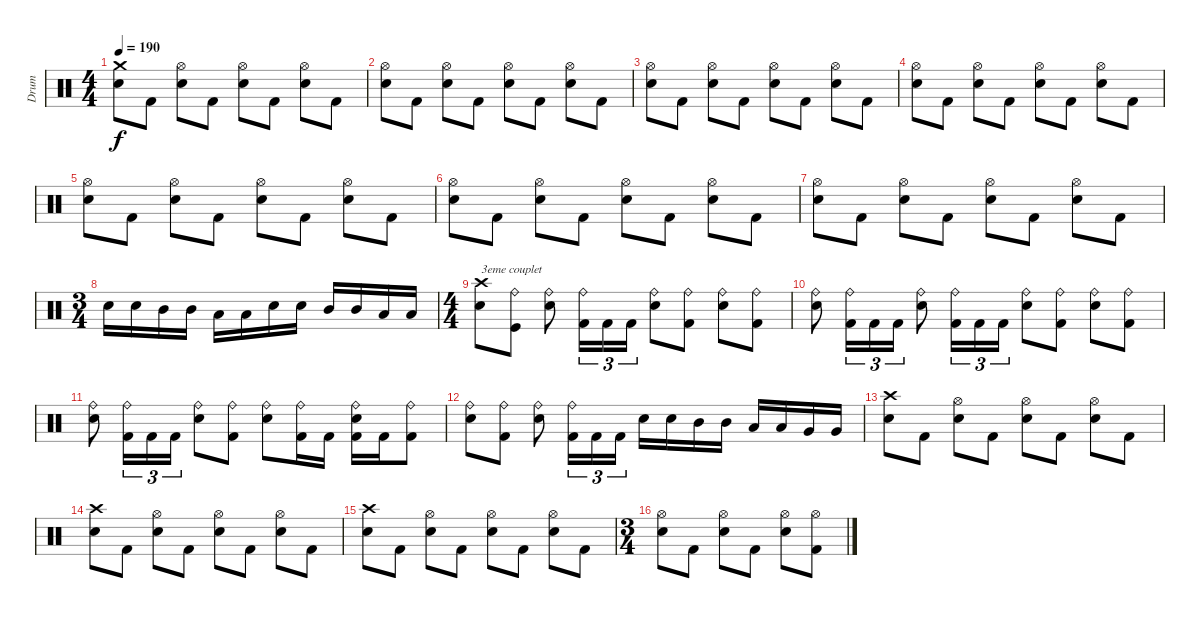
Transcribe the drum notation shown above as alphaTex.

\track ("Drum" "Drum") {instrument percussion}
\staff {score}
\articulation defaults
\ts (4 4)
\tempo 190
\clef neutral
\ks c
("Snare (hit) 2" "Crash medium (hit)").8{dy f} "Kick (hit) 2".8 ("Snare (hit) 2" "Hi-Hat (open)").8 "Kick (hit) 2".8 ("Snare (hit) 2" "Hi-Hat (open)").8 "Kick (hit) 2".8 ("Snare (hit) 2" "Hi-Hat (open)").8 "Kick (hit) 2".8 |
("Snare (hit) 2" "Hi-Hat (open)").8 "Kick (hit) 2".8 ("Snare (hit) 2" "Hi-Hat (open)").8 "Kick (hit) 2".8 ("Snare (hit) 2" "Hi-Hat (open)").8 "Kick (hit) 2".8 ("Snare (hit) 2" "Hi-Hat (open)").8 "Kick (hit) 2".8 |
("Snare (hit) 2" "Hi-Hat (open)").8 "Kick (hit) 2".8 ("Snare (hit) 2" "Hi-Hat (open)").8 "Kick (hit) 2".8 ("Snare (hit) 2" "Hi-Hat (open)").8 "Kick (hit) 2".8 ("Snare (hit) 2" "Hi-Hat (open)").8 "Kick (hit) 2".8 |
("Snare (hit) 2" "Hi-Hat (open)").8 "Kick (hit) 2".8 ("Snare (hit) 2" "Hi-Hat (open)").8 "Kick (hit) 2".8 ("Snare (hit) 2" "Hi-Hat (open)").8 "Kick (hit) 2".8 ("Snare (hit) 2" "Hi-Hat (open)").8 "Kick (hit) 2".8 |
("Snare (hit) 2" "Hi-Hat (open)").8 "Kick (hit) 2".8 ("Snare (hit) 2" "Hi-Hat (open)").8 "Kick (hit) 2".8 ("Snare (hit) 2" "Hi-Hat (open)").8 "Kick (hit) 2".8 ("Snare (hit) 2" "Hi-Hat (open)").8 "Kick (hit) 2".8 |
("Snare (hit) 2" "Hi-Hat (open)").8 "Kick (hit) 2".8 ("Snare (hit) 2" "Hi-Hat (open)").8 "Kick (hit) 2".8 ("Snare (hit) 2" "Hi-Hat (open)").8 "Kick (hit) 2".8 ("Snare (hit) 2" "Hi-Hat (open)").8 "Kick (hit) 2".8 |
("Snare (hit) 2" "Hi-Hat (open)").8 "Kick (hit) 2".8 ("Snare (hit) 2" "Hi-Hat (open)").8 "Kick (hit) 2".8 ("Snare (hit) 2" "Hi-Hat (open)").8 "Kick (hit) 2".8 ("Snare (hit) 2" "Hi-Hat (open)").8 "Kick (hit) 2".8 |
\ts (3 4)
"Snare (hit) 2".16 "Snare (hit) 2".16 "Mid Tom (hit)".16 "Mid Tom (hit)".16 "Low Tom (hit)".16 "Low Tom (hit)".16 "Snare (hit) 2".16 "Snare (hit) 2".16 "Mid Tom (hit)".16 "Mid Tom (hit)".16 "Low Tom (hit)".16 "Low Tom (hit)".16 |
\ts (4 4)
("Snare (hit) 2" "Crash high (hit)").8{txt "3eme couplet"} ("Kick (hit)" "Ride (bell)").8 ("Snare (hit) 2" "Ride (bell)").8 ("Kick (hit) 2" "Ride (bell)").16{tu (3 2)} "Kick (hit) 2".16{tu (3 2)} "Kick (hit) 2".16{tu (3 2)} ("Snare (hit) 2" "Ride (bell)").8 ("Kick (hit) 2" "Ride (bell)").8 ("Snare (hit) 2" "Ride (bell)").8 ("Kick (hit) 2" "Ride (bell)").8 |
("Snare (hit) 2" "Ride (bell)").8 ("Kick (hit) 2" "Ride (bell)").16{tu (3 2)} "Kick (hit) 2".16{tu (3 2)} "Kick (hit) 2".16{tu (3 2)} ("Snare (hit) 2" "Ride (bell)").8 ("Kick (hit) 2" "Ride (bell)").16{tu (3 2)} "Kick (hit) 2".16{tu (3 2)} "Kick (hit) 2".16{tu (3 2)} ("Snare (hit) 2" "Ride (bell)").8 ("Kick (hit) 2" "Ride (bell)").8 ("Snare (hit) 2" "Ride (bell)").8 ("Kick (hit) 2" "Ride (bell)").8 |
("Snare (hit) 2" "Ride (bell)").8 ("Kick (hit) 2" "Ride (bell)").16{tu (3 2)} "Kick (hit) 2".16{tu (3 2)} "Kick (hit) 2".16{tu (3 2)} ("Snare (hit) 2" "Ride (bell)").8 ("Kick (hit) 2" "Ride (bell)").8 ("Snare (hit) 2" "Ride (bell)").8 ("Kick (hit) 2" "Ride (bell)").16 "Kick (hit) 2".16 ("Kick (hit) 2" "Snare (hit) 2" "Ride (bell)").16 "Kick (hit) 2".16 ("Kick (hit) 2" "Ride (bell)").8 |
("Snare (hit) 2" "Ride (bell)").8 ("Kick (hit) 2" "Ride (bell)").8 ("Snare (hit) 2" "Ride (bell)").8 ("Kick (hit) 2" "Ride (bell)").16{tu (3 2)} "Kick (hit) 2".16{tu (3 2)} "Kick (hit) 2".16{tu (3 2)} "Snare (hit) 2".16 "Snare (hit) 2".16 "Mid Tom (hit)".16 "Mid Tom (hit)".16 "Low Tom (hit)".16 "Low Tom (hit)".16 "Very Low Tom (hit)".16 "Very Low Tom (hit)".16 |
("Snare (hit) 2" "Crash high (hit)").8 "Kick (hit) 2".8 ("Snare (hit) 2" "Hi-Hat (open)").8 "Kick (hit) 2".8 ("Snare (hit) 2" "Hi-Hat (open)").8 "Kick (hit) 2".8 ("Snare (hit) 2" "Hi-Hat (open)").8 "Kick (hit) 2".8 |
("Snare (hit) 2" "Crash high (hit)").8 "Kick (hit) 2".8 ("Snare (hit) 2" "Hi-Hat (open)").8 "Kick (hit) 2".8 ("Snare (hit) 2" "Hi-Hat (open)").8 "Kick (hit) 2".8 ("Snare (hit) 2" "Hi-Hat (open)").8 "Kick (hit) 2".8 |
("Snare (hit) 2" "Crash high (hit)").8 "Kick (hit) 2".8 ("Snare (hit) 2" "Hi-Hat (open)").8 "Kick (hit) 2".8 ("Snare (hit) 2" "Hi-Hat (open)").8 "Kick (hit) 2".8 ("Snare (hit) 2" "Hi-Hat (open)").8 "Kick (hit) 2".8 |
\ts (3 4)
("Snare (hit) 2" "Hi-Hat (open)").8 "Kick (hit) 2".8 ("Snare (hit) 2" "Hi-Hat (open)").8 "Kick (hit) 2".8 ("Snare (hit) 2" "Hi-Hat (open)").8 ("Kick (hit) 2" "Hi-Hat (open)").8
